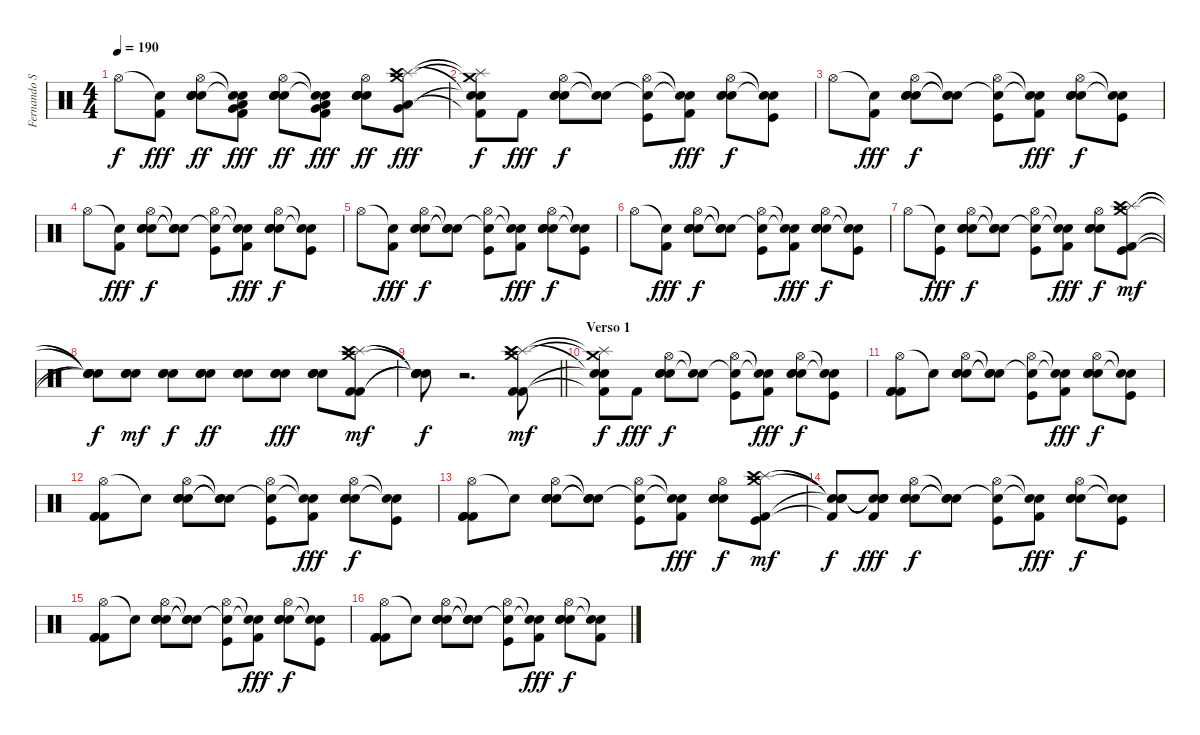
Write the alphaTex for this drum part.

\track ("Fernando Sarcella" "Fernando S") {instrument percussion}
\staff {score}
\articulation defaults
\ts (4 4)
\tempo 190
\clef neutral
\ks c "Hi-Hat (open)".8{dy f}
("Snare (hit)"{t} "Kick (hit) 2").8{dy fff} ("Electric Snare (hit)" "Hi-Hat (open)" "Electric Snare (hit)" "Electric Snare (hit)" "Electric Snare (hit)").8{dy ff} ("Kick (hit) 2" "Snare (hit)"{t} "Snare (hit)"{t} "Very Low Tom (hit)" "Low Tom (hit)").8{dy fff} ("Electric Snare (hit)" "Hi-Hat (open)" "Electric Snare (hit)" "Electric Snare (hit)" "Electric Snare (hit)").8{dy ff} ("Kick (hit) 2" "Snare (hit)"{t} "Snare (hit)"{t} "Very Low Tom (hit)" "Low Tom (hit)").8{dy fff} ("Electric Snare (hit)" "Hi-Hat (open)" "Electric Snare (hit)" "Electric Snare (hit)" "Electric Snare (hit)").8{dy ff} ("Crash medium (hit)" "Splash (hit)" "Crash high (hit)" "Very Low Tom (hit)" "Low Tom (hit)").8{dy fff} |
("Crash medium (hit)"{t} "Splash (hit)"{t} "Snare (hit)"{t} "Snare (hit)"{t} "Kick (hit) 2"{t}).8{dy f} "Kick (hit) 2".8{dy fff} ("Hi-Hat (open)" "Electric Snare (hit)" "Electric Snare (hit)" "Electric Snare (hit)").8{dy f} ("Snare (hit)"{t} "Snare (hit)"{t}).8 ("Hi-Hat (open)" "Snare (hit)"{t} "Kick (hit)").8 ("Snare (hit)"{t} "Snare (hit)"{t} "Kick (hit) 2").8{dy fff} ("Hi-Hat (open)" "Electric Snare (hit)" "Electric Snare (hit)" "Electric Snare (hit)").8{dy f} ("Snare (hit)"{t} "Snare (hit)"{t} "Kick (hit)").8 |
"Hi-Hat (open)".8 ("Snare (hit)"{t} "Kick (hit) 2").8{dy fff} ("Hi-Hat (open)" "Electric Snare (hit)" "Electric Snare (hit)" "Electric Snare (hit)").8{dy f} ("Snare (hit)"{t} "Snare (hit)"{t} "Snare (hit)"{t}).8 ("Hi-Hat (open)" "Snare (hit)"{t} "Kick (hit)").8 ("Snare (hit)"{t} "Snare (hit)"{t} "Kick (hit) 2").8{dy fff} ("Hi-Hat (open)" "Electric Snare (hit)" "Electric Snare (hit)" "Electric Snare (hit)").8{dy f} ("Snare (hit)"{t} "Snare (hit)"{t} "Kick (hit)").8 |
"Hi-Hat (open)".8 ("Snare (hit)"{t} "Kick (hit) 2").8{dy fff} ("Hi-Hat (open)" "Electric Snare (hit)" "Electric Snare (hit)" "Electric Snare (hit)").8{dy f} ("Snare (hit)"{t} "Snare (hit)"{t} "Snare (hit)"{t}).8 ("Hi-Hat (open)" "Snare (hit)"{t} "Kick (hit)").8 ("Snare (hit)"{t} "Snare (hit)"{t} "Kick (hit) 2").8{dy fff} ("Hi-Hat (open)" "Electric Snare (hit)" "Electric Snare (hit)" "Electric Snare (hit)").8{dy f} ("Snare (hit)"{t} "Snare (hit)"{t} "Kick (hit)").8 |
"Hi-Hat (open)".8 ("Snare (hit)"{t} "Kick (hit) 2").8{dy fff} ("Hi-Hat (open)" "Electric Snare (hit)" "Electric Snare (hit)" "Electric Snare (hit)").8{dy f} ("Snare (hit)"{t} "Snare (hit)"{t} "Snare (hit)"{t}).8 ("Hi-Hat (open)" "Snare (hit)"{t} "Kick (hit)").8 ("Snare (hit)"{t} "Snare (hit)"{t} "Kick (hit) 2").8{dy fff} ("Hi-Hat (open)" "Electric Snare (hit)" "Electric Snare (hit)" "Electric Snare (hit)").8{dy f} ("Snare (hit)"{t} "Snare (hit)"{t} "Kick (hit)").8 |
"Hi-Hat (open)".8 ("Snare (hit)"{t} "Kick (hit) 2").8{dy fff} ("Hi-Hat (open)" "Electric Snare (hit)" "Electric Snare (hit)" "Electric Snare (hit)").8{dy f} ("Snare (hit)"{t} "Snare (hit)"{t} "Snare (hit)"{t}).8 ("Hi-Hat (open)" "Snare (hit)"{t} "Kick (hit)").8 ("Snare (hit)"{t} "Snare (hit)"{t} "Kick (hit) 2").8{dy fff} ("Hi-Hat (open)" "Electric Snare (hit)" "Electric Snare (hit)" "Electric Snare (hit)").8{dy f} ("Snare (hit)"{t} "Snare (hit)"{t} "Kick (hit)").8 |
"Hi-Hat (open)".8 ("Snare (hit)"{t} "Kick (hit)").8{dy fff} ("Hi-Hat (open)" "Electric Snare (hit)" "Electric Snare (hit)" "Electric Snare (hit)").8{dy f} ("Snare (hit)"{t} "Snare (hit)"{t} "Snare (hit)"{t}).8 ("Hi-Hat (open)" "Snare (hit)"{t} "Kick (hit)").8 ("Snare (hit)"{t} "Snare (hit)"{t} "Kick (hit) 2").8{dy fff} ("Hi-Hat (open)" "Electric Snare (hit)" "Electric Snare (hit)" "Electric Snare (hit)").8{dy f} ("Crash medium (hit)" "Splash (hit)" "Crash high (hit)" "Kick (hit) 2" "Kick (hit)").8{dy mf} |
("Snare (hit)"{t} "Snare (hit)"{t} "Snare (hit)"{t} "Snare (hit)"{t} "Snare (hit)"{t}).8{dy f} ("Electric Snare (hit)" "Electric Snare (hit)" "Electric Snare (hit)").8{dy mf} ("Electric Snare (hit)" "Electric Snare (hit)" "Electric Snare (hit)").8{dy f} ("Electric Snare (hit)" "Electric Snare (hit)" "Electric Snare (hit)").8{dy ff} ("Electric Snare (hit)" "Electric Snare (hit)" "Electric Snare (hit)").8 ("Electric Snare (hit)" "Electric Snare (hit)" "Electric Snare (hit)").8{dy fff} ("Electric Snare (hit)" "Electric Snare (hit)" "Electric Snare (hit)").8 ("Crash medium (hit)" "Splash (hit)" "Crash high (hit)" "Kick (hit) 2" "Kick (hit) 2").8{dy mf} |
\barLineRight lightlight
("Snare (hit)"{t} "Snare (hit)"{t} "Snare (hit)"{t} "Snare (hit)"{t} "Snare (hit)"{t}).8{dy f} r.2{d} ("Crash medium (hit)" "Splash (hit)" "Crash high (hit)" "Kick (hit) 2" "Kick (hit) 2").8{dy mf} |
\section ("" "Verso 1")
("Crash medium (hit)"{t} "Splash (hit)"{t} "Snare (hit)"{t} "Snare (hit)"{t} "Kick (hit) 2"{t}).8{dy f} "Kick (hit) 2".8{dy fff} ("Hi-Hat (open)" "Electric Snare (hit)" "Electric Snare (hit)" "Electric Snare (hit)").8{dy f} ("Snare (hit)"{t} "Snare (hit)"{t}).8 ("Hi-Hat (open)" "Snare (hit)"{t} "Kick (hit)").8 ("Snare (hit)"{t} "Snare (hit)"{t} "Kick (hit) 2").8{dy fff} ("Hi-Hat (open)" "Electric Snare (hit)" "Electric Snare (hit)" "Electric Snare (hit)").8{dy f} ("Snare (hit)"{t} "Snare (hit)"{t} "Kick (hit)").8 |
("Hi-Hat (open)" "Kick (hit) 2" "Kick (hit) 2" "Kick (hit) 2").8 "Snare (hit)"{t}.8 ("Hi-Hat (open)" "Electric Snare (hit)" "Electric Snare (hit)" "Electric Snare (hit)").8 ("Snare (hit)"{t} "Snare (hit)"{t} "Snare (hit)"{t}).8 ("Hi-Hat (open)" "Snare (hit)"{t} "Kick (hit)").8 ("Snare (hit)"{t} "Snare (hit)"{t} "Kick (hit) 2").8{dy fff} ("Hi-Hat (open)" "Electric Snare (hit)" "Electric Snare (hit)" "Electric Snare (hit)").8{dy f} ("Snare (hit)"{t} "Snare (hit)"{t} "Kick (hit)").8 |
("Hi-Hat (open)" "Kick (hit) 2" "Kick (hit) 2" "Kick (hit) 2").8 "Snare (hit)"{t}.8 ("Hi-Hat (open)" "Electric Snare (hit)" "Electric Snare (hit)" "Electric Snare (hit)").8 ("Snare (hit)"{t} "Snare (hit)"{t} "Snare (hit)"{t}).8 ("Hi-Hat (open)" "Snare (hit)"{t} "Kick (hit)").8 ("Snare (hit)"{t} "Snare (hit)"{t} "Kick (hit) 2").8{dy fff} ("Hi-Hat (open)" "Electric Snare (hit)" "Electric Snare (hit)" "Electric Snare (hit)").8{dy f} ("Snare (hit)"{t} "Snare (hit)"{t} "Kick (hit)").8 |
("Hi-Hat (open)" "Kick (hit) 2" "Kick (hit) 2" "Kick (hit) 2").8 "Snare (hit)"{t}.8 ("Hi-Hat (open)" "Electric Snare (hit)" "Electric Snare (hit)" "Electric Snare (hit)").8 ("Snare (hit)"{t} "Snare (hit)"{t} "Snare (hit)"{t}).8 ("Hi-Hat (open)" "Snare (hit)"{t} "Kick (hit)").8 ("Snare (hit)"{t} "Snare (hit)"{t} "Kick (hit) 2").8{dy fff} ("Hi-Hat (open)" "Electric Snare (hit)" "Electric Snare (hit)" "Electric Snare (hit)").8{dy f} ("Crash medium (hit)" "Splash (hit)" "Crash high (hit)" "Kick (hit) 2" "Kick (hit)").8{dy mf} |
("Snare (hit)"{t} "Snare (hit)"{t} "Snare (hit)"{t} "Snare (hit)"{t} "Kick (hit) 2"{t}).8{dy f} ("Snare (hit)"{t} "Snare (hit)"{t} "Snare (hit)"{t} "Snare (hit)"{t} "Kick (hit) 2").8{dy fff} ("Hi-Hat (open)" "Electric Snare (hit)" "Electric Snare (hit)" "Electric Snare (hit)").8{dy f} ("Snare (hit)"{t} "Snare (hit)"{t} "Snare (hit)"{t}).8 ("Hi-Hat (open)" "Snare (hit)"{t} "Kick (hit)").8 ("Snare (hit)"{t} "Snare (hit)"{t} "Kick (hit) 2").8{dy fff} ("Hi-Hat (open)" "Electric Snare (hit)" "Electric Snare (hit)" "Electric Snare (hit)").8{dy f} ("Snare (hit)"{t} "Snare (hit)"{t} "Kick (hit)").8 |
("Hi-Hat (open)" "Kick (hit) 2" "Kick (hit) 2" "Kick (hit) 2").8 "Snare (hit)"{t}.8 ("Hi-Hat (open)" "Electric Snare (hit)" "Electric Snare (hit)" "Electric Snare (hit)").8 ("Snare (hit)"{t} "Snare (hit)"{t} "Snare (hit)"{t}).8 ("Hi-Hat (open)" "Snare (hit)"{t} "Kick (hit)").8 ("Snare (hit)"{t} "Snare (hit)"{t} "Kick (hit) 2").8{dy fff} ("Hi-Hat (open)" "Electric Snare (hit)" "Electric Snare (hit)" "Electric Snare (hit)").8{dy f} ("Snare (hit)"{t} "Snare (hit)"{t} "Kick (hit)").8 |
("Hi-Hat (open)" "Kick (hit) 2" "Kick (hit) 2" "Kick (hit) 2").8 "Snare (hit)"{t}.8 ("Hi-Hat (open)" "Electric Snare (hit)" "Electric Snare (hit)" "Electric Snare (hit)").8 ("Snare (hit)"{t} "Snare (hit)"{t} "Snare (hit)"{t}).8 ("Hi-Hat (open)" "Snare (hit)"{t} "Kick (hit)").8 ("Snare (hit)"{t} "Snare (hit)"{t} "Kick (hit) 2").8{dy fff} ("Hi-Hat (open)" "Electric Snare (hit)" "Electric Snare (hit)" "Electric Snare (hit)").8{dy f} ("Snare (hit)"{t} "Snare (hit)"{t} "Kick (hit) 2").8
